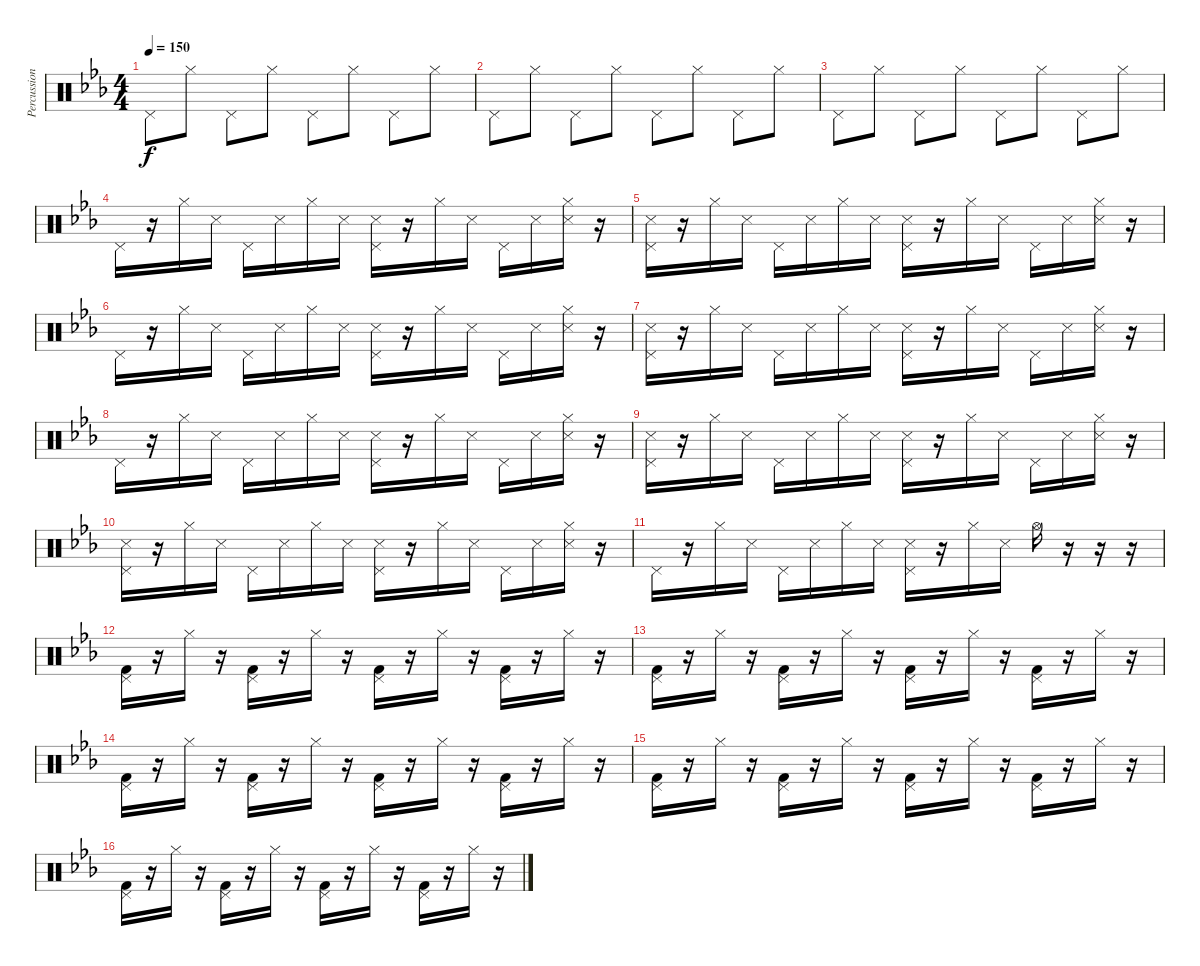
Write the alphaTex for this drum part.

\track ("Percussions" "Percussion") {solo instrument percussion}
\staff {score}
\articulation defaults
\ts (4 4)
\tempo 150
\clef neutral
\ks eb "Pedal Hi-Hat (hit)".8{dy f} "Hi-Hat (closed)".8 "Pedal Hi-Hat (hit)".8 "Hi-Hat (closed)".8 "Pedal Hi-Hat (hit)".8 "Hi-Hat (closed)".8 "Pedal Hi-Hat (hit)".8 "Hi-Hat (closed)".8
|
"Pedal Hi-Hat (hit)".8 "Hi-Hat (closed)".8 "Pedal Hi-Hat (hit)".8 "Hi-Hat (closed)".8 "Pedal Hi-Hat (hit)".8 "Hi-Hat (closed)".8 "Pedal Hi-Hat (hit)".8 "Hi-Hat (closed)".8 |
"Pedal Hi-Hat (hit)".8 "Hi-Hat (closed)".8 "Pedal Hi-Hat (hit)".8 "Hi-Hat (closed)".8 "Pedal Hi-Hat (hit)".8 "Hi-Hat (closed)".8 "Pedal Hi-Hat (hit)".8 "Hi-Hat (closed)".8 |
"Pedal Hi-Hat (hit)".16 r.16 "Hi-Hat (closed)".16 "Snare (side stick) 3".16 "Pedal Hi-Hat (hit)".16 "Snare (side stick) 3".16 "Hi-Hat (closed)".16 "Snare (side stick) 3".16 ("Pedal Hi-Hat (hit)" "Snare (side stick) 3").16 r.16 "Hi-Hat (closed)".16 "Snare (side stick) 3".16 "Pedal Hi-Hat (hit)".16 "Snare (side stick) 3".16 ("Snare (side stick) 3" "Hi-Hat (closed)").16 r.16 |
("Pedal Hi-Hat (hit)" "Snare (side stick) 3").16 r.16 "Hi-Hat (closed)".16 "Snare (side stick) 3".16 "Pedal Hi-Hat (hit)".16 "Snare (side stick) 3".16 "Hi-Hat (closed)".16 "Snare (side stick) 3".16 ("Pedal Hi-Hat (hit)" "Snare (side stick) 3").16 r.16 "Hi-Hat (closed)".16 "Snare (side stick) 3".16 "Pedal Hi-Hat (hit)".16 "Snare (side stick) 3".16 ("Snare (side stick) 3" "Hi-Hat (closed)").16 r.16 |
"Pedal Hi-Hat (hit)".16 r.16 "Hi-Hat (closed)".16 "Snare (side stick) 3".16 "Pedal Hi-Hat (hit)".16 "Snare (side stick) 3".16 "Hi-Hat (closed)".16 "Snare (side stick) 3".16 ("Pedal Hi-Hat (hit)" "Snare (side stick) 3").16 r.16 "Hi-Hat (closed)".16 "Snare (side stick) 3".16 "Pedal Hi-Hat (hit)".16 "Snare (side stick) 3".16 ("Snare (side stick) 3" "Hi-Hat (closed)").16 r.16 |
("Pedal Hi-Hat (hit)" "Snare (side stick) 3").16 r.16 "Hi-Hat (closed)".16 "Snare (side stick) 3".16 "Pedal Hi-Hat (hit)".16 "Snare (side stick) 3".16 "Hi-Hat (closed)".16 "Snare (side stick) 3".16 ("Pedal Hi-Hat (hit)" "Snare (side stick) 3").16 r.16 "Hi-Hat (closed)".16 "Snare (side stick) 3".16 "Pedal Hi-Hat (hit)".16 "Snare (side stick) 3".16 ("Snare (side stick) 3" "Hi-Hat (closed)").16 r.16 |
"Pedal Hi-Hat (hit)".16 r.16 "Hi-Hat (closed)".16 "Snare (side stick) 3".16 "Pedal Hi-Hat (hit)".16 "Snare (side stick) 3".16 "Hi-Hat (closed)".16 "Snare (side stick) 3".16 ("Pedal Hi-Hat (hit)" "Snare (side stick) 3").16 r.16 "Hi-Hat (closed)".16 "Snare (side stick) 3".16 "Pedal Hi-Hat (hit)".16 "Snare (side stick) 3".16 ("Snare (side stick) 3" "Hi-Hat (closed)").16 r.16 |
("Pedal Hi-Hat (hit)" "Snare (side stick) 3").16 r.16 "Hi-Hat (closed)".16 "Snare (side stick) 3".16 "Pedal Hi-Hat (hit)".16 "Snare (side stick) 3".16 "Hi-Hat (closed)".16 "Snare (side stick) 3".16 ("Pedal Hi-Hat (hit)" "Snare (side stick) 3").16 r.16 "Hi-Hat (closed)".16 "Snare (side stick) 3".16 "Pedal Hi-Hat (hit)".16 "Snare (side stick) 3".16 ("Snare (side stick) 3" "Hi-Hat (closed)").16 r.16 |
("Pedal Hi-Hat (hit)" "Snare (side stick) 3").16 r.16 "Hi-Hat (closed)".16 "Snare (side stick) 3".16 "Pedal Hi-Hat (hit)".16 "Snare (side stick) 3".16 "Hi-Hat (closed)".16 "Snare (side stick) 3".16 ("Pedal Hi-Hat (hit)" "Snare (side stick) 3").16 r.16 "Hi-Hat (closed)".16 "Snare (side stick) 3".16 "Pedal Hi-Hat (hit)".16 "Snare (side stick) 3".16 ("Snare (side stick) 3" "Hi-Hat (closed)").16 r.16 |
"Pedal Hi-Hat (hit)".16 r.16 "Hi-Hat (closed)".16 "Snare (side stick) 3".16 "Pedal Hi-Hat (hit)".16 "Snare (side stick) 3".16 "Hi-Hat (closed)".16 "Snare (side stick) 3".16 ("Pedal Hi-Hat (hit)" "Snare (side stick) 3").16 r.16 "Hi-Hat (closed)".16 "Snare (side stick) 3".16 "Hi-Hat (open)".16 r.16 r.16 r.16 |
("Pedal Hi-Hat (hit)" "Kick (hit) 2").16 r.16 "Hi-Hat (closed)".16 r.16 ("Pedal Hi-Hat (hit)" "Kick (hit) 2").16 r.16 "Hi-Hat (closed)".16 r.16 ("Pedal Hi-Hat (hit)" "Kick (hit) 2").16 r.16 "Hi-Hat (closed)".16 r.16 ("Pedal Hi-Hat (hit)" "Kick (hit) 2").16 r.16 "Hi-Hat (closed)".16 r.16 |
("Pedal Hi-Hat (hit)" "Kick (hit) 2").16 r.16 "Hi-Hat (closed)".16 r.16 ("Pedal Hi-Hat (hit)" "Kick (hit) 2").16 r.16 "Hi-Hat (closed)".16 r.16 ("Pedal Hi-Hat (hit)" "Kick (hit) 2").16 r.16 "Hi-Hat (closed)".16 r.16 ("Pedal Hi-Hat (hit)" "Kick (hit) 2").16 r.16 "Hi-Hat (closed)".16 r.16 |
("Pedal Hi-Hat (hit)" "Kick (hit) 2").16 r.16 "Hi-Hat (closed)".16 r.16 ("Pedal Hi-Hat (hit)" "Kick (hit) 2").16 r.16 "Hi-Hat (closed)".16 r.16 ("Pedal Hi-Hat (hit)" "Kick (hit) 2").16 r.16 "Hi-Hat (closed)".16 r.16 ("Pedal Hi-Hat (hit)" "Kick (hit) 2").16 r.16 "Hi-Hat (closed)".16 r.16 |
("Pedal Hi-Hat (hit)" "Kick (hit) 2").16 r.16 "Hi-Hat (closed)".16 r.16 ("Pedal Hi-Hat (hit)" "Kick (hit) 2").16 r.16 "Hi-Hat (closed)".16 r.16 ("Pedal Hi-Hat (hit)" "Kick (hit) 2").16 r.16 "Hi-Hat (closed)".16 r.16 ("Pedal Hi-Hat (hit)" "Kick (hit) 2").16 r.16 "Hi-Hat (closed)".16 r.16 |
("Pedal Hi-Hat (hit)" "Kick (hit) 2").16 r.16 "Hi-Hat (closed)".16 r.16 ("Pedal Hi-Hat (hit)" "Kick (hit) 2").16 r.16 "Hi-Hat (closed)".16 r.16 ("Pedal Hi-Hat (hit)" "Kick (hit) 2").16 r.16 "Hi-Hat (closed)".16 r.16 ("Pedal Hi-Hat (hit)" "Kick (hit) 2").16 r.16 "Hi-Hat (closed)".16 r.16
